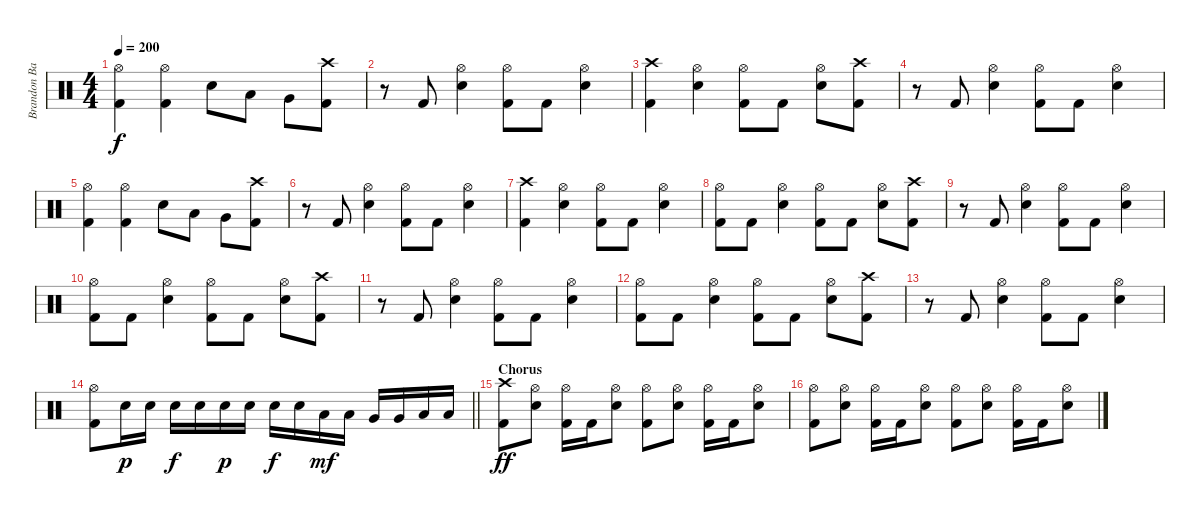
\track ("Brandon Barnes - Drums" "Brandon Ba") {instrument percussion}
\staff {score}
\articulation defaults
\ts (4 4)
\tempo 200
\clef neutral
\ks c
("Hi-Hat (open)" "Kick (hit) 2").4{dy f} ("Hi-Hat (open)" "Kick (hit) 2").4 "Electric Snare (hit)".8 "Low Tom (hit)".8 "Very Low Tom (hit)".8 ("Crash high (hit)" "Kick (hit) 2").8 |
r.8 "Kick (hit) 2".8 ("Hi-Hat (open)" "Electric Snare (hit)").4 ("Hi-Hat (open)" "Kick (hit) 2").8 "Kick (hit) 2".8 ("Hi-Hat (open)" "Electric Snare (hit)").4 |
("Crash high (hit)" "Kick (hit) 2").4 ("Hi-Hat (open)" "Electric Snare (hit)").4 ("Hi-Hat (open)" "Kick (hit) 2").8 "Kick (hit) 2".8 ("Hi-Hat (open)" "Electric Snare (hit)").8 ("Crash high (hit)" "Kick (hit) 2").8 |
r.8 "Kick (hit) 2".8 ("Hi-Hat (open)" "Electric Snare (hit)").4 ("Hi-Hat (open)" "Kick (hit) 2").8 "Kick (hit) 2".8 ("Hi-Hat (open)" "Electric Snare (hit)").4 |
("Hi-Hat (open)" "Kick (hit) 2").4 ("Hi-Hat (open)" "Kick (hit) 2").4 "Electric Snare (hit)".8 "Low Tom (hit)".8 "Very Low Tom (hit)".8 ("Crash high (hit)" "Kick (hit) 2").8 |
r.8 "Kick (hit) 2".8 ("Hi-Hat (open)" "Electric Snare (hit)").4 ("Hi-Hat (open)" "Kick (hit) 2").8 "Kick (hit) 2".8 ("Hi-Hat (open)" "Electric Snare (hit)").4 |
("Crash high (hit)" "Kick (hit) 2").4 ("Hi-Hat (open)" "Electric Snare (hit)").4 ("Hi-Hat (open)" "Kick (hit) 2").8 "Kick (hit) 2".8 ("Hi-Hat (open)" "Electric Snare (hit)").4 |
("Hi-Hat (open)" "Kick (hit) 2").8 "Kick (hit) 2".8 ("Hi-Hat (open)" "Electric Snare (hit)").4 ("Hi-Hat (open)" "Kick (hit) 2").8 "Kick (hit) 2".8 ("Hi-Hat (open)" "Electric Snare (hit)").8 ("Crash high (hit)" "Kick (hit) 2").8 |
r.8 "Kick (hit) 2".8 ("Hi-Hat (open)" "Electric Snare (hit)").4 ("Hi-Hat (open)" "Kick (hit) 2").8 "Kick (hit) 2".8 ("Hi-Hat (open)" "Electric Snare (hit)").4 |
("Hi-Hat (open)" "Kick (hit) 2").8 "Kick (hit) 2".8 ("Hi-Hat (open)" "Electric Snare (hit)").4 ("Hi-Hat (open)" "Kick (hit) 2").8 "Kick (hit) 2".8 ("Hi-Hat (open)" "Electric Snare (hit)").8 ("Crash high (hit)" "Kick (hit) 2").8 |
r.8 "Kick (hit) 2".8 ("Hi-Hat (open)" "Electric Snare (hit)").4 ("Hi-Hat (open)" "Kick (hit) 2").8 "Kick (hit) 2".8 ("Hi-Hat (open)" "Electric Snare (hit)").4 |
("Hi-Hat (open)" "Kick (hit) 2").8 "Kick (hit) 2".8 ("Hi-Hat (open)" "Electric Snare (hit)").4 ("Hi-Hat (open)" "Kick (hit) 2").8 "Kick (hit) 2".8 ("Hi-Hat (open)" "Electric Snare (hit)").8 ("Crash high (hit)" "Kick (hit) 2").8 |
r.8 "Kick (hit) 2".8 ("Hi-Hat (open)" "Electric Snare (hit)").4 ("Hi-Hat (open)" "Kick (hit) 2").8 "Kick (hit) 2".8 ("Hi-Hat (open)" "Electric Snare (hit)").4 |
\barLineRight lightlight
("Hi-Hat (open)" "Kick (hit) 2").8 "Snare (hit) 2".16{dy p} "Snare (hit) 2".16 "Snare (hit) 2".16{dy f} "Snare (hit) 2".16 "Snare (hit) 2".16{dy p} "Snare (hit) 2".16 "Snare (hit) 2".16{dy f} "Snare (hit) 2".16 "Low Tom (hit)".16{dy mf} "Low Tom (hit)".16 "Very Low Tom (hit)".16 "Very Low Tom (hit)".16 "Low Floor Tom (hit)".16 "Low Floor Tom (hit)".16 |
\section ("" "Chorus")
("Crash high (hit)" "Kick (hit) 2").8{dy ff} ("Snare (hit) 2" "Hi-Hat (open)").8 ("Kick (hit) 2" "Hi-Hat (open)").16 "Kick (hit) 2".16 ("Snare (hit) 2" "Hi-Hat (open)").8 ("Kick (hit) 2" "Hi-Hat (open)").8 ("Snare (hit) 2" "Hi-Hat (open)").8 ("Kick (hit) 2" "Hi-Hat (open)").16 "Kick (hit) 2".16 ("Snare (hit) 2" "Hi-Hat (open)").8 |
("Kick (hit) 2" "Hi-Hat (open)").8 ("Snare (hit) 2" "Hi-Hat (open)").8 ("Kick (hit) 2" "Hi-Hat (open)").16 "Kick (hit) 2".16 ("Snare (hit) 2" "Hi-Hat (open)").8 ("Kick (hit) 2" "Hi-Hat (open)").8 ("Snare (hit) 2" "Hi-Hat (open)").8 ("Kick (hit) 2" "Hi-Hat (open)").16 "Kick (hit) 2".16 ("Snare (hit) 2" "Hi-Hat (open)").8
